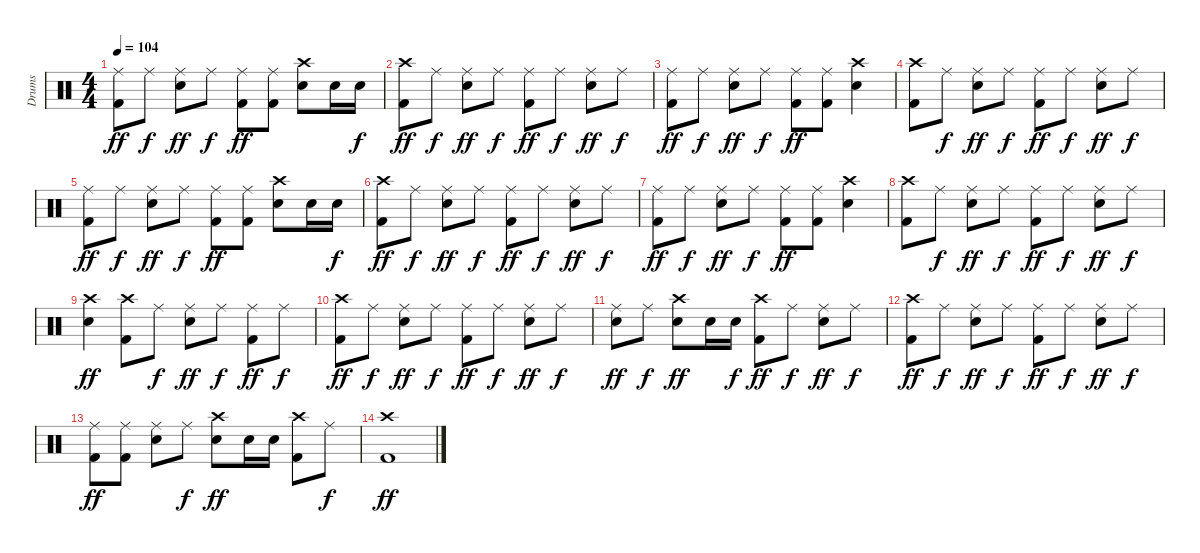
\track ("Drums" "Drums") {instrument percussion}
\staff {score}
\articulation defaults
\ts (4 4)
\tempo 104
\clef neutral
\ks c
("Ride (middle)" "Kick (hit) 2").8{dy ff} "Ride (middle)".8{dy f} ("Ride (middle)" "Snare (hit) 2").8{dy ff} "Ride (middle)".8{dy f} ("Ride (middle)" "Kick (hit) 2").8{dy ff} ("Ride (middle)" "Kick (hit) 2").8 ("Crash high (hit)" "Snare (hit) 2").8 "Snare (hit) 2".16 "Snare (hit) 2".16{dy f} |
("Crash high (hit)" "Kick (hit) 2").8{dy ff} "Ride (middle)".8{dy f} ("Ride (middle)" "Snare (hit) 2").8{dy ff} "Ride (middle)".8{dy f} ("Ride (middle)" "Kick (hit) 2").8{dy ff} "Ride (middle)".8{dy f} ("Ride (middle)" "Snare (hit) 2").8{dy ff} "Ride (middle)".8{dy f} |
("Ride (middle)" "Kick (hit) 2").8{dy ff} "Ride (middle)".8{dy f} ("Ride (middle)" "Snare (hit) 2").8{dy ff} "Ride (middle)".8{dy f} ("Ride (middle)" "Kick (hit) 2").8{dy ff} ("Ride (middle)" "Kick (hit) 2").8 ("Crash high (hit)" "Snare (hit) 2").4 |
("Crash high (hit)" "Kick (hit) 2").8 "Ride (middle)".8{dy f} ("Ride (middle)" "Snare (hit) 2").8{dy ff} "Ride (middle)".8{dy f} ("Ride (middle)" "Kick (hit) 2").8{dy ff} "Ride (middle)".8{dy f} ("Ride (middle)" "Snare (hit) 2").8{dy ff} "Ride (middle)".8{dy f} |
("Ride (middle)" "Kick (hit) 2").8{dy ff} "Ride (middle)".8{dy f} ("Ride (middle)" "Snare (hit) 2").8{dy ff} "Ride (middle)".8{dy f} ("Ride (middle)" "Kick (hit) 2").8{dy ff} ("Ride (middle)" "Kick (hit) 2").8 ("Crash high (hit)" "Snare (hit) 2").8 "Snare (hit) 2".16 "Snare (hit) 2".16{dy f} |
("Crash high (hit)" "Kick (hit) 2").8{dy ff} "Ride (middle)".8{dy f} ("Ride (middle)" "Snare (hit) 2").8{dy ff} "Ride (middle)".8{dy f} ("Ride (middle)" "Kick (hit) 2").8{dy ff} "Ride (middle)".8{dy f} ("Ride (middle)" "Snare (hit) 2").8{dy ff} "Ride (middle)".8{dy f} |
("Ride (middle)" "Kick (hit) 2").8{dy ff} "Ride (middle)".8{dy f} ("Ride (middle)" "Snare (hit) 2").8{dy ff} "Ride (middle)".8{dy f} ("Ride (middle)" "Kick (hit) 2").8{dy ff} ("Ride (middle)" "Kick (hit) 2").8 ("Crash high (hit)" "Snare (hit) 2").4 |
("Crash high (hit)" "Kick (hit) 2").8 "Ride (middle)".8{dy f} ("Ride (middle)" "Snare (hit) 2").8{dy ff} "Ride (middle)".8{dy f} ("Ride (middle)" "Kick (hit) 2").8{dy ff} "Ride (middle)".8{dy f} ("Ride (middle)" "Snare (hit) 2").8{dy ff} "Ride (middle)".8{dy f} |
("Crash high (hit)" "Snare (hit) 2").4{dy ff} ("Crash high (hit)" "Kick (hit) 2").8 "Ride (middle)".8{dy f} ("Ride (middle)" "Snare (hit) 2").8{dy ff} "Ride (middle)".8{dy f} ("Ride (middle)" "Kick (hit) 2").8{dy ff} "Ride (middle)".8{dy f} |
("Crash high (hit)" "Kick (hit) 2").8{dy ff} "Ride (middle)".8{dy f} ("Ride (middle)" "Snare (hit) 2").8{dy ff} "Ride (middle)".8{dy f} ("Ride (middle)" "Kick (hit) 2").8{dy ff} "Ride (middle)".8{dy f} ("Ride (middle)" "Snare (hit) 2").8{dy ff} "Ride (middle)".8{dy f} |
("Ride (middle)" "Snare (hit) 2").8{dy ff} "Ride (middle)".8{dy f} ("Crash high (hit)" "Snare (hit) 2").8{dy ff} "Snare (hit) 2".16 "Snare (hit) 2".16{dy f} ("Crash high (hit)" "Kick (hit) 2").8{dy ff} "Ride (middle)".8{dy f} ("Ride (middle)" "Snare (hit) 2").8{dy ff} "Ride (middle)".8{dy f} |
("Crash high (hit)" "Kick (hit) 2").8{dy ff} "Ride (middle)".8{dy f} ("Ride (middle)" "Snare (hit) 2").8{dy ff} "Ride (middle)".8{dy f} ("Ride (middle)" "Kick (hit) 2").8{dy ff} "Ride (middle)".8{dy f} ("Ride (middle)" "Snare (hit) 2").8{dy ff} "Ride (middle)".8{dy f} |
("Ride (middle)" "Kick (hit) 2").8{dy ff} ("Ride (middle)" "Kick (hit) 2").8 ("Ride (middle)" "Snare (hit) 2").8 "Ride (middle)".8{dy f} ("Crash high (hit)" "Snare (hit) 2").8{dy ff} "Snare (hit) 2".16 "Snare (hit) 2".16 ("Crash high (hit)" "Kick (hit) 2").8 "Ride (middle)".8{dy f} |
("Crash high (hit)" "Kick (hit) 2").1{dy ff}
